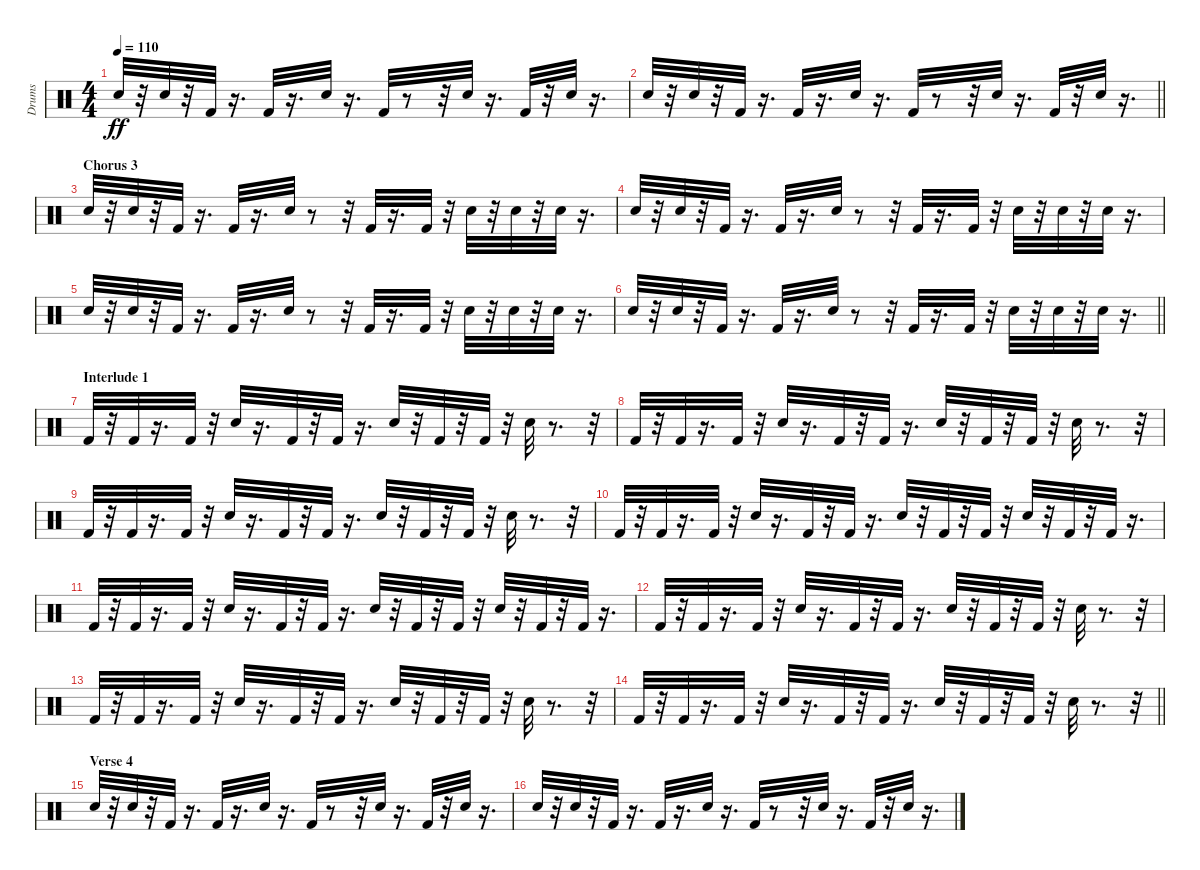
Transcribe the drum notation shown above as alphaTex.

\track ("Drums" "Drums") {instrument percussion}
\staff {score}
\articulation defaults
\ts (4 4)
\tempo 110
\clef neutral
\ks c "Electric Snare (hit)".32{dy ff}
r.32 "Electric Snare (hit)".32 r.32 "Kick (hit) 2".32 r.16{d} "Kick (hit) 2".32 r.16{d} "Electric Snare (hit)".32 r.16{d} "Kick (hit) 2".32 r.8 r.32 "Electric Snare (hit)".32 r.16{d} "Kick (hit) 2".32 r.32 "Electric Snare (hit)".32 r.16{d} |
\barLineRight lightlight "Electric Snare (hit)".32
r.32 "Electric Snare (hit)".32 r.32 "Kick (hit) 2".32 r.16{d} "Kick (hit) 2".32 r.16{d} "Electric Snare (hit)".32 r.16{d} "Kick (hit) 2".32 r.8 r.32 "Electric Snare (hit)".32 r.16{d} "Kick (hit) 2".32 r.32 "Electric Snare (hit)".32 r.16{d} |
\section ("" "Chorus 3")
"Electric Snare (hit)".32 r.32 "Electric Snare (hit)".32 r.32 "Kick (hit) 2".32 r.16{d} "Kick (hit) 2".32 r.16{d} "Electric Snare (hit)".32 r.8 r.32 "Kick (hit) 2".32 r.16{d} "Kick (hit) 2".32 r.32 "Electric Snare (hit)".32 r.32 "Electric Snare (hit)".32 r.32 "Electric Snare (hit)".32 r.16{d} |
"Electric Snare (hit)".32 r.32 "Electric Snare (hit)".32 r.32 "Kick (hit) 2".32 r.16{d} "Kick (hit) 2".32 r.16{d} "Electric Snare (hit)".32 r.8 r.32 "Kick (hit) 2".32 r.16{d} "Kick (hit) 2".32 r.32 "Electric Snare (hit)".32 r.32 "Electric Snare (hit)".32 r.32 "Electric Snare (hit)".32 r.16{d} |
"Electric Snare (hit)".32 r.32 "Electric Snare (hit)".32 r.32 "Kick (hit) 2".32 r.16{d} "Kick (hit) 2".32 r.16{d} "Electric Snare (hit)".32 r.8 r.32 "Kick (hit) 2".32 r.16{d} "Kick (hit) 2".32 r.32 "Electric Snare (hit)".32 r.32 "Electric Snare (hit)".32 r.32 "Electric Snare (hit)".32 r.16{d} |
\barLineRight lightlight "Electric Snare (hit)".32
r.32 "Electric Snare (hit)".32 r.32 "Kick (hit) 2".32 r.16{d} "Kick (hit) 2".32 r.16{d} "Electric Snare (hit)".32 r.8 r.32 "Kick (hit) 2".32 r.16{d} "Kick (hit) 2".32 r.32 "Electric Snare (hit)".32 r.32 "Electric Snare (hit)".32 r.32 "Electric Snare (hit)".32 r.16{d} |
\section ("" "Interlude 1")
"Kick (hit) 2".32 r.32 "Kick (hit) 2".32 r.16{d} "Kick (hit) 2".32 r.32 "Electric Snare (hit)".32 r.16{d} "Kick (hit) 2".32 r.32 "Kick (hit) 2".32 r.16{d} "Electric Snare (hit)".32 r.32 "Kick (hit) 2".32 r.32 "Kick (hit) 2".32 r.32 "Electric Snare (hit)".32 r.8{d} r.32 |
"Kick (hit) 2".32 r.32 "Kick (hit) 2".32 r.16{d} "Kick (hit) 2".32 r.32 "Electric Snare (hit)".32 r.16{d} "Kick (hit) 2".32 r.32 "Kick (hit) 2".32 r.16{d} "Electric Snare (hit)".32 r.32 "Kick (hit) 2".32 r.32 "Kick (hit) 2".32 r.32 "Electric Snare (hit)".32 r.8{d} r.32 |
"Kick (hit) 2".32 r.32 "Kick (hit) 2".32 r.16{d} "Kick (hit) 2".32 r.32 "Electric Snare (hit)".32 r.16{d} "Kick (hit) 2".32 r.32 "Kick (hit) 2".32 r.16{d} "Electric Snare (hit)".32 r.32 "Kick (hit) 2".32 r.32 "Kick (hit) 2".32 r.32 "Electric Snare (hit)".32 r.8{d} r.32 |
"Kick (hit) 2".32 r.32 "Kick (hit) 2".32 r.16{d} "Kick (hit) 2".32 r.32 "Electric Snare (hit)".32 r.16{d} "Kick (hit) 2".32 r.32 "Kick (hit) 2".32 r.16{d} "Electric Snare (hit)".32 r.32 "Kick (hit) 2".32 r.32 "Kick (hit) 2".32 r.32 "Electric Snare (hit)".32 r.32 "Kick (hit) 2".32 r.32 "Kick (hit) 2".32 r.16{d} |
"Kick (hit) 2".32 r.32 "Kick (hit) 2".32 r.16{d} "Kick (hit) 2".32 r.32 "Electric Snare (hit)".32 r.16{d} "Kick (hit) 2".32 r.32 "Kick (hit) 2".32 r.16{d} "Electric Snare (hit)".32 r.32 "Kick (hit) 2".32 r.32 "Kick (hit) 2".32 r.32 "Electric Snare (hit)".32 r.32 "Kick (hit) 2".32 r.32 "Kick (hit) 2".32 r.16{d} |
"Kick (hit) 2".32 r.32 "Kick (hit) 2".32 r.16{d} "Kick (hit) 2".32 r.32 "Electric Snare (hit)".32 r.16{d} "Kick (hit) 2".32 r.32 "Kick (hit) 2".32 r.16{d} "Electric Snare (hit)".32 r.32 "Kick (hit) 2".32 r.32 "Kick (hit) 2".32 r.32 "Electric Snare (hit)".32 r.8{d} r.32 |
"Kick (hit) 2".32 r.32 "Kick (hit) 2".32 r.16{d} "Kick (hit) 2".32 r.32 "Electric Snare (hit)".32 r.16{d} "Kick (hit) 2".32 r.32 "Kick (hit) 2".32 r.16{d} "Electric Snare (hit)".32 r.32 "Kick (hit) 2".32 r.32 "Kick (hit) 2".32 r.32 "Electric Snare (hit)".32 r.8{d} r.32 |
\barLineRight lightlight "Kick (hit) 2".32
r.32 "Kick (hit) 2".32 r.16{d} "Kick (hit) 2".32 r.32 "Electric Snare (hit)".32 r.16{d} "Kick (hit) 2".32 r.32 "Kick (hit) 2".32 r.16{d} "Electric Snare (hit)".32 r.32 "Kick (hit) 2".32 r.32 "Kick (hit) 2".32 r.32 "Electric Snare (hit)".32 r.8{d} r.32 |
\section ("" "Verse 4")
"Electric Snare (hit)".32 r.32 "Electric Snare (hit)".32 r.32 "Kick (hit) 2".32 r.16{d} "Kick (hit) 2".32 r.16{d} "Electric Snare (hit)".32 r.16{d} "Kick (hit) 2".32 r.8 r.32 "Electric Snare (hit)".32 r.16{d} "Kick (hit) 2".32 r.32 "Electric Snare (hit)".32 r.16{d} |
"Electric Snare (hit)".32 r.32 "Electric Snare (hit)".32 r.32 "Kick (hit) 2".32 r.16{d} "Kick (hit) 2".32 r.16{d} "Electric Snare (hit)".32 r.16{d} "Kick (hit) 2".32 r.8 r.32 "Electric Snare (hit)".32 r.16{d} "Kick (hit) 2".32 r.32 "Electric Snare (hit)".32 r.16{d}
